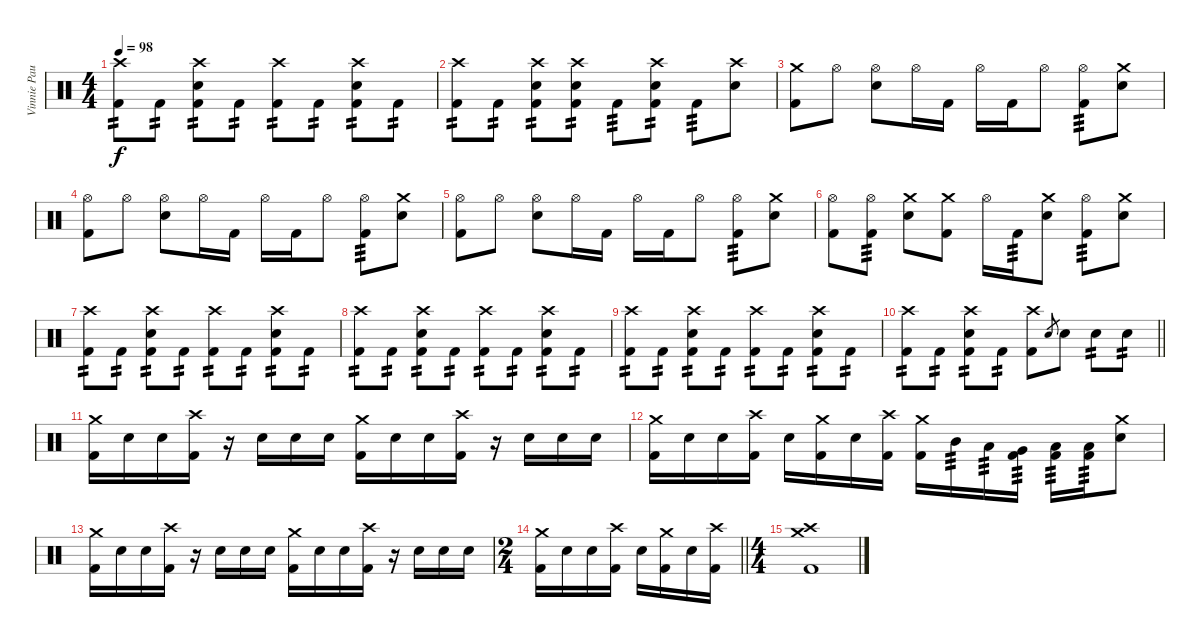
\track ("Vinnie Paul" "Vinnie Pau") {instrument percussion}
\staff {score}
\articulation defaults
\ts (4 4)
\tempo 98
\clef neutral
\ks c
("Crash high (hit)" "Kick (hit) 2").8{tp 2 dy f} "Kick (hit) 2".8{tp 2} ("Crash high (hit)" "Snare (hit) 2" "Kick (hit) 2").8{tp 2} "Kick (hit) 2".8{tp 2} ("Crash high (hit)" "Kick (hit) 2").8{tp 2} "Kick (hit) 2".8{tp 2} ("Crash high (hit)" "Snare (hit) 2" "Kick (hit) 2").8{tp 2} "Kick (hit) 2".8{tp 2} |
("Crash high (hit)" "Kick (hit) 2").8{tp 2} "Kick (hit) 2".8{tp 2} ("Crash high (hit)" "Snare (hit) 2" "Kick (hit) 2").8{tp 2} ("Crash high (hit)" "Snare (hit) 2" "Kick (hit) 2").8{tp 2} "Kick (hit) 2".8{tp 3} ("Crash high (hit)" "Snare (hit) 2" "Kick (hit) 2").8{tp 2} "Kick (hit) 2".8{tp 3} ("Crash high (hit)" "Snare (hit) 2").8 |
("Crash medium (hit)" "Kick (hit) 2").8 "Hi-Hat (open)".8 ("Hi-Hat (open)" "Snare (hit) 2").8 "Hi-Hat (open)".16 "Kick (hit) 2".16 "Hi-Hat (open)".16 "Kick (hit) 2".16 "Hi-Hat (open)".8 ("Hi-Hat (open)" "Kick (hit) 2").8{tp 3} ("Crash medium (hit)" "Snare (hit) 2").8 |
("Hi-Hat (open)" "Kick (hit) 2").8 "Hi-Hat (open)".8 ("Hi-Hat (open)" "Snare (hit) 2").8 "Hi-Hat (open)".16 "Kick (hit) 2".16 "Hi-Hat (open)".16 "Kick (hit) 2".16 "Hi-Hat (open)".8 ("Hi-Hat (open)" "Kick (hit) 2").8{tp 3} ("Crash medium (hit)" "Snare (hit) 2").8 |
("Hi-Hat (open)" "Kick (hit) 2").8 "Hi-Hat (open)".8 ("Hi-Hat (open)" "Snare (hit) 2").8 "Hi-Hat (open)".16 "Kick (hit) 2".16 "Hi-Hat (open)".16 "Kick (hit) 2".16 "Hi-Hat (open)".8 ("Hi-Hat (open)" "Kick (hit) 2").8{tp 3} ("Crash medium (hit)" "Snare (hit) 2").8 |
("Hi-Hat (open)" "Kick (hit) 2").8 ("Hi-Hat (open)" "Kick (hit) 2").8{tp 3} ("Crash medium (hit)" "Snare (hit) 2").8 ("Crash medium (hit)" "Kick (hit) 2").8 "Hi-Hat (open)".16 "Kick (hit) 2".16{tp 3} ("Crash medium (hit)" "Snare (hit) 2").8 ("Hi-Hat (open)" "Kick (hit) 2").8{tp 3} ("Crash medium (hit)" "Snare (hit) 2").8 |
("Crash high (hit)" "Kick (hit) 2").8{tp 2} "Kick (hit) 2".8{tp 2} ("Crash high (hit)" "Snare (hit) 2" "Kick (hit) 2").8{tp 2} "Kick (hit) 2".8{tp 2} ("Crash high (hit)" "Kick (hit) 2").8{tp 2} "Kick (hit) 2".8{tp 2} ("Crash high (hit)" "Snare (hit) 2" "Kick (hit) 2").8{tp 2} "Kick (hit) 2".8{tp 2} |
("Crash high (hit)" "Kick (hit) 2").8{tp 2} "Kick (hit) 2".8{tp 2} ("Crash high (hit)" "Snare (hit) 2" "Kick (hit) 2").8{tp 2} "Kick (hit) 2".8{tp 2} ("Crash high (hit)" "Kick (hit) 2").8{tp 2} "Kick (hit) 2".8{tp 2} ("Crash high (hit)" "Snare (hit) 2" "Kick (hit) 2").8{tp 2} "Kick (hit) 2".8{tp 2} |
("Crash high (hit)" "Kick (hit) 2").8{tp 2} "Kick (hit) 2".8{tp 2} ("Crash high (hit)" "Snare (hit) 2" "Kick (hit) 2").8{tp 2} "Kick (hit) 2".8{tp 2} ("Crash high (hit)" "Kick (hit) 2").8{tp 2} "Kick (hit) 2".8{tp 2} ("Crash high (hit)" "Snare (hit) 2" "Kick (hit) 2").8{tp 2} "Kick (hit) 2".8{tp 2} |
\barLineRight lightlight
("Crash high (hit)" "Kick (hit) 2").8{tp 2} "Kick (hit) 2".8{tp 2} ("Crash high (hit)" "Snare (hit) 2" "Kick (hit) 2").8{tp 2} "Kick (hit) 2".8{tp 2} ("Crash high (hit)" "Kick (hit) 2").8 "Snare (hit) 2".8{gr} "Snare (hit) 2".8 "Snare (hit) 2".8{tp 2} "Snare (hit) 2".8{tp 2} |
("Crash medium (hit)" "Kick (hit) 2").16 "Snare (hit) 2".16 "Snare (hit) 2".16 ("Crash high (hit)" "Kick (hit) 2").16 r.16 "Snare (hit) 2".16 "Snare (hit) 2".16 "Snare (hit) 2".16 ("Crash medium (hit)" "Kick (hit) 2").16 "Snare (hit) 2".16 "Snare (hit) 2".16 ("Crash high (hit)" "Kick (hit) 2").16 r.16 "Snare (hit) 2".16 "Snare (hit) 2".16 "Snare (hit) 2".16 |
("Crash medium (hit)" "Kick (hit) 2").16 "Snare (hit) 2".16 "Snare (hit) 2".16 ("Crash high (hit)" "Kick (hit) 2").16 "Snare (hit) 2".16 ("Crash medium (hit)" "Kick (hit) 2").16 "Snare (hit) 2".16 ("Crash high (hit)" "Kick (hit) 2").16 ("Crash medium (hit)" "Kick (hit) 2").16 "Mid Tom (hit)".16{tp 3} "Low Tom (hit)".16{tp 3} ("Very Low Tom (hit)" "Kick (hit) 2").16{tp 3} ("Low Floor Tom (hit)" "Kick (hit) 2").16{tp 3} ("Low Floor Tom (hit)" "Kick (hit) 2").16{tp 3} ("Crash medium (hit)" "Snare (hit) 2").8 |
("Crash medium (hit)" "Kick (hit) 2").16 "Snare (hit) 2".16 "Snare (hit) 2".16 ("Crash high (hit)" "Kick (hit) 2").16 r.16 "Snare (hit) 2".16 "Snare (hit) 2".16 "Snare (hit) 2".16 ("Crash medium (hit)" "Kick (hit) 2").16 "Snare (hit) 2".16 "Snare (hit) 2".16 ("Crash high (hit)" "Kick (hit) 2").16 r.16 "Snare (hit) 2".16 "Snare (hit) 2".16 "Snare (hit) 2".16 |
\ts (2 4)
\barLineRight lightlight
("Crash medium (hit)" "Kick (hit) 2").16 "Snare (hit) 2".16 "Snare (hit) 2".16 ("Crash high (hit)" "Kick (hit) 2").16 "Snare (hit) 2".16 ("Crash medium (hit)" "Kick (hit) 2").16 "Snare (hit) 2".16 ("Crash high (hit)" "Kick (hit) 2").16 |
\ts (4 4)
("Crash high (hit)" "Crash medium (hit)" "Kick (hit) 2").1
